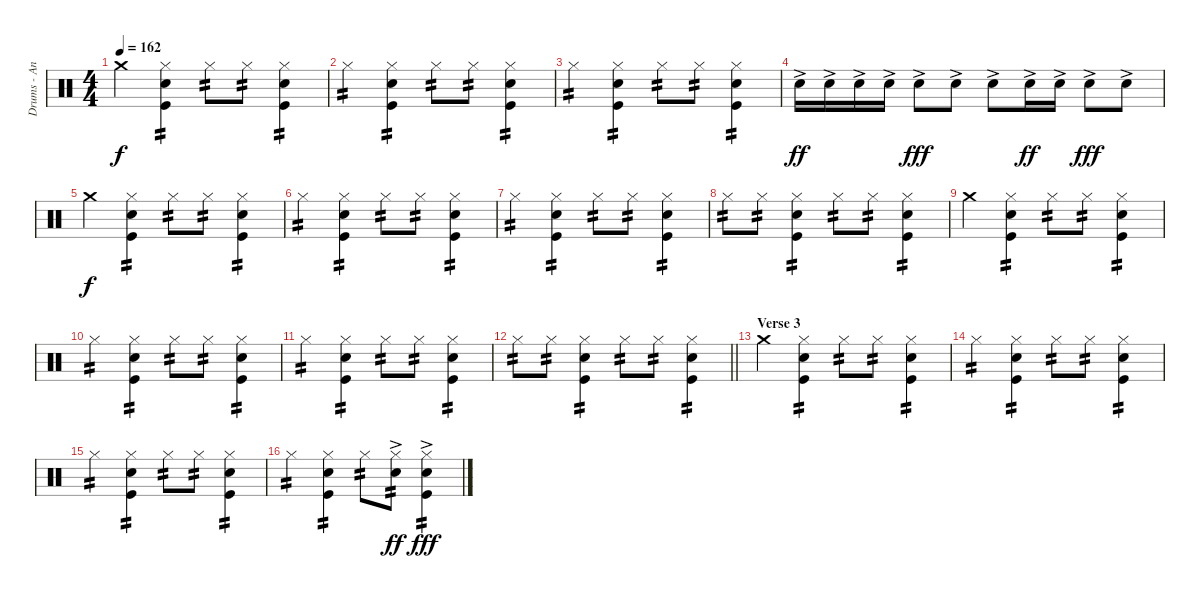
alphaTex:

\track ("Drums - Andriushkin" "Drums - An") {instrument percussion}
\staff {score}
\articulation defaults
\ts (4 4)
\tempo 162
\clef neutral
\ks c "Crash medium (hit)".4{dy f}
("Hi-Hat (closed)" "Electric Snare (hit)" "Kick (hit)").4{tp 2} "Hi-Hat (closed)".8{tp 2} "Hi-Hat (closed)".8{tp 2} ("Hi-Hat (closed)" "Electric Snare (hit)" "Kick (hit)").4{tp 2} |
"Hi-Hat (closed)".4{tp 2} ("Hi-Hat (closed)" "Electric Snare (hit)" "Kick (hit)").4{tp 2} "Hi-Hat (closed)".8{tp 2} "Hi-Hat (closed)".8{tp 2} ("Hi-Hat (closed)" "Electric Snare (hit)" "Kick (hit)").4{tp 2} |
"Hi-Hat (closed)".4{tp 2} ("Hi-Hat (closed)" "Electric Snare (hit)" "Kick (hit)").4{tp 2} "Hi-Hat (closed)".8{tp 2} "Hi-Hat (closed)".8{tp 2} ("Hi-Hat (closed)" "Electric Snare (hit)" "Kick (hit)").4{tp 2} |
"Electric Snare (hit)"{ac}.16{dy ff} "Electric Snare (hit)"{ac}.16 "Electric Snare (hit)"{ac}.16 "Electric Snare (hit)"{ac}.16 "Electric Snare (hit)"{ac}.8{dy fff} "Electric Snare (hit)"{ac}.8 "Electric Snare (hit)"{ac}.8 "Electric Snare (hit)"{ac}.16{dy ff} "Electric Snare (hit)"{ac}.16 "Electric Snare (hit)"{ac}.8{dy fff} "Electric Snare (hit)"{ac}.8 |
"Crash medium (hit)".4{dy f} ("Hi-Hat (closed)" "Electric Snare (hit)" "Kick (hit)").4{tp 2} "Hi-Hat (closed)".8{tp 2} "Hi-Hat (closed)".8{tp 2} ("Hi-Hat (closed)" "Electric Snare (hit)" "Kick (hit)").4{tp 2} |
"Hi-Hat (closed)".4{tp 2} ("Hi-Hat (closed)" "Electric Snare (hit)" "Kick (hit)").4{tp 2} "Hi-Hat (closed)".8{tp 2} "Hi-Hat (closed)".8{tp 2} ("Hi-Hat (closed)" "Electric Snare (hit)" "Kick (hit)").4{tp 2} |
"Hi-Hat (closed)".4{tp 2} ("Hi-Hat (closed)" "Electric Snare (hit)" "Kick (hit)").4{tp 2} "Hi-Hat (closed)".8{tp 2} "Hi-Hat (closed)".8{tp 2} ("Hi-Hat (closed)" "Electric Snare (hit)" "Kick (hit)").4{tp 2} |
"Hi-Hat (closed)".8{tp 2} "Hi-Hat (closed)".8{tp 2} ("Hi-Hat (closed)" "Electric Snare (hit)" "Kick (hit)").4{tp 2} "Hi-Hat (closed)".8{tp 2} "Hi-Hat (closed)".8{tp 2} ("Hi-Hat (closed)" "Electric Snare (hit)" "Kick (hit)").4{tp 2} |
"Crash medium (hit)".4 ("Hi-Hat (closed)" "Electric Snare (hit)" "Kick (hit)").4{tp 2} "Hi-Hat (closed)".8{tp 2} "Hi-Hat (closed)".8{tp 2} ("Hi-Hat (closed)" "Electric Snare (hit)" "Kick (hit)").4{tp 2} |
"Hi-Hat (closed)".4{tp 2} ("Hi-Hat (closed)" "Electric Snare (hit)" "Kick (hit)").4{tp 2} "Hi-Hat (closed)".8{tp 2} "Hi-Hat (closed)".8{tp 2} ("Hi-Hat (closed)" "Electric Snare (hit)" "Kick (hit)").4{tp 2} |
"Hi-Hat (closed)".4{tp 2} ("Hi-Hat (closed)" "Electric Snare (hit)" "Kick (hit)").4{tp 2} "Hi-Hat (closed)".8{tp 2} "Hi-Hat (closed)".8{tp 2} ("Hi-Hat (closed)" "Electric Snare (hit)" "Kick (hit)").4{tp 2} |
\barLineRight lightlight "Hi-Hat (closed)".8{tp 2} "Hi-Hat (closed)".8{tp 2}
("Hi-Hat (closed)" "Electric Snare (hit)" "Kick (hit)").4{tp 2} "Hi-Hat (closed)".8{tp 2} "Hi-Hat (closed)".8{tp 2} ("Hi-Hat (closed)" "Electric Snare (hit)" "Kick (hit)").4{tp 2} |
\section ("" "Verse 3")
"Crash medium (hit)".4 ("Hi-Hat (closed)" "Electric Snare (hit)" "Kick (hit)").4{tp 2} "Hi-Hat (closed)".8{tp 2} "Hi-Hat (closed)".8{tp 2} ("Hi-Hat (closed)" "Electric Snare (hit)" "Kick (hit)").4{tp 2} |
"Hi-Hat (closed)".4{tp 2} ("Hi-Hat (closed)" "Electric Snare (hit)" "Kick (hit)").4{tp 2} "Hi-Hat (closed)".8{tp 2} "Hi-Hat (closed)".8{tp 2} ("Hi-Hat (closed)" "Electric Snare (hit)" "Kick (hit)").4{tp 2} |
"Hi-Hat (closed)".4{tp 2} ("Hi-Hat (closed)" "Electric Snare (hit)" "Kick (hit)").4{tp 2} "Hi-Hat (closed)".8{tp 2} "Hi-Hat (closed)".8{tp 2} ("Hi-Hat (closed)" "Electric Snare (hit)" "Kick (hit)").4{tp 2} |
"Hi-Hat (closed)".4{tp 2} ("Hi-Hat (closed)" "Electric Snare (hit)" "Kick (hit)").4{tp 2} "Hi-Hat (closed)".8{tp 2} ("Hi-Hat (closed)" "Electric Snare (hit)"{ac}).8{tp 2 dy ff} ("Hi-Hat (closed)" "Electric Snare (hit)"{ac} "Kick (hit)").4{tp 2 dy fff}
